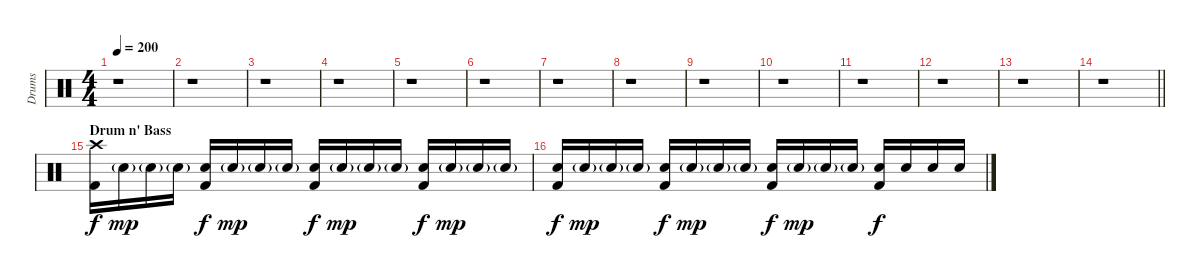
\track ("Drums" "Drums") {instrument percussion}
\staff {score}
\articulation defaults
\ts (4 4)
\tempo 200
\clef neutral
\ks c
r.1{dy f} |
r.1 |
r.1 |
r.1 |
r.1 |
r.1 |
r.1 |
r.1 |
r.1 |
r.1 |
r.1 |
r.1 |
r.1 |
\barLineRight lightlight
r.1 |
\section ("" "Drum n' Bass")
("Crash high (hit)" "Kick (hit) 2").16 "Electric Snare (hit)"{g}.16{dy mp} "Electric Snare (hit)"{g}.16 "Electric Snare (hit)"{g}.16 ("Electric Snare (hit)" "Kick (hit) 2").16{dy f} "Electric Snare (hit)"{g}.16{dy mp} "Electric Snare (hit)"{g}.16 "Electric Snare (hit)"{g}.16 ("Electric Snare (hit)" "Kick (hit) 2").16{dy f} "Electric Snare (hit)"{g}.16{dy mp} "Electric Snare (hit)"{g}.16 "Electric Snare (hit)"{g}.16 ("Electric Snare (hit)" "Kick (hit) 2").16{dy f} "Electric Snare (hit)"{g}.16{dy mp} "Electric Snare (hit)"{g}.16 "Electric Snare (hit)"{g}.16 |
("Electric Snare (hit)" "Kick (hit) 2").16{dy f} "Electric Snare (hit)"{g}.16{dy mp} "Electric Snare (hit)"{g}.16 "Electric Snare (hit)"{g}.16 ("Electric Snare (hit)" "Kick (hit) 2").16{dy f} "Electric Snare (hit)"{g}.16{dy mp} "Electric Snare (hit)"{g}.16 "Electric Snare (hit)"{g}.16 ("Electric Snare (hit)" "Kick (hit) 2").16{dy f} "Electric Snare (hit)"{g}.16{dy mp} "Electric Snare (hit)"{g}.16 "Electric Snare (hit)"{g}.16 ("Electric Snare (hit)" "Kick (hit) 2").16{dy f} "Electric Snare (hit)".16 "Electric Snare (hit)".16 "Electric Snare (hit)".16
